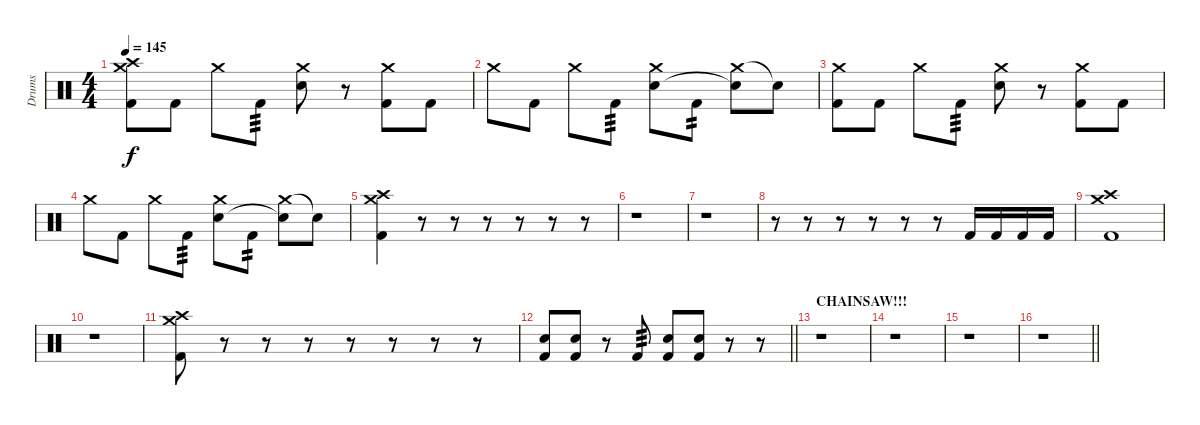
\track ("Drums" "Drums") {instrument percussion}
\staff {score}
\articulation defaults
\ts (4 4)
\tempo 145
\clef neutral
\ks c
("Crash medium (hit)" "Crash high (hit)" "Kick (hit) 2").8{dy f} "Kick (hit) 2".8 "Crash medium (hit)".8 "Kick (hit) 2".8{tp 3} ("Crash medium (hit)" "Electric Snare (hit)").8 r.8 ("Crash medium (hit)" "Kick (hit) 2").8 "Kick (hit) 2".8 |
"Crash medium (hit)".8 "Kick (hit) 2".8 "Crash medium (hit)".8 "Kick (hit) 2".8{tp 3} ("Crash medium (hit)" "Electric Snare (hit)").8 "Kick (hit) 2".8{tp 2} ("Crash medium (hit)" "Snare (hit)"{t}).8 "Snare (hit)"{t}.8 |
("Crash medium (hit)" "Kick (hit) 2").8 "Kick (hit) 2".8 "Crash medium (hit)".8 "Kick (hit) 2".8{tp 3} ("Crash medium (hit)" "Electric Snare (hit)").8 r.8 ("Crash medium (hit)" "Kick (hit) 2").8 "Kick (hit) 2".8 |
"Crash medium (hit)".8 "Kick (hit) 2".8 "Crash medium (hit)".8 "Kick (hit) 2".8{tp 3} ("Crash medium (hit)" "Electric Snare (hit)").8 "Kick (hit) 2".8{tp 2} ("Crash medium (hit)" "Snare (hit)"{t}).8 "Snare (hit)"{t}.8 |
("Crash medium (hit)" "Crash high (hit)" "Kick (hit) 2").4 r.8{volume 0} r.8 r.8 r.8 r.8 r.8 |
r.1 |
r.1 |
r.8{volume 13} r.8 r.8 r.8 r.8 r.8 "Kick (hit) 2".16 "Kick (hit) 2".16 "Kick (hit) 2".16 "Kick (hit) 2".16 |
("Crash medium (hit)" "Crash high (hit)" "Kick (hit) 2").1 |
r.1 |
("Crash medium (hit)" "Crash high (hit)" "Kick (hit) 2").8 r.8{volume 0} r.8 r.8 r.8 r.8 r.8 r.8 |
\barLineRight lightlight
("Electric Snare (hit)" "Kick (hit) 2").8{volume 13} ("Electric Snare (hit)" "Kick (hit) 2").8 r.8 "Kick (hit) 2".8{tp 3} ("Electric Snare (hit)" "Kick (hit) 2").8 ("Electric Snare (hit)" "Kick (hit) 2").8 r.8 r.8 |
\section ("" "CHAINSAW!!!")
r.1 |
r.1 |
r.1 |
\barLineRight lightlight
r.1
